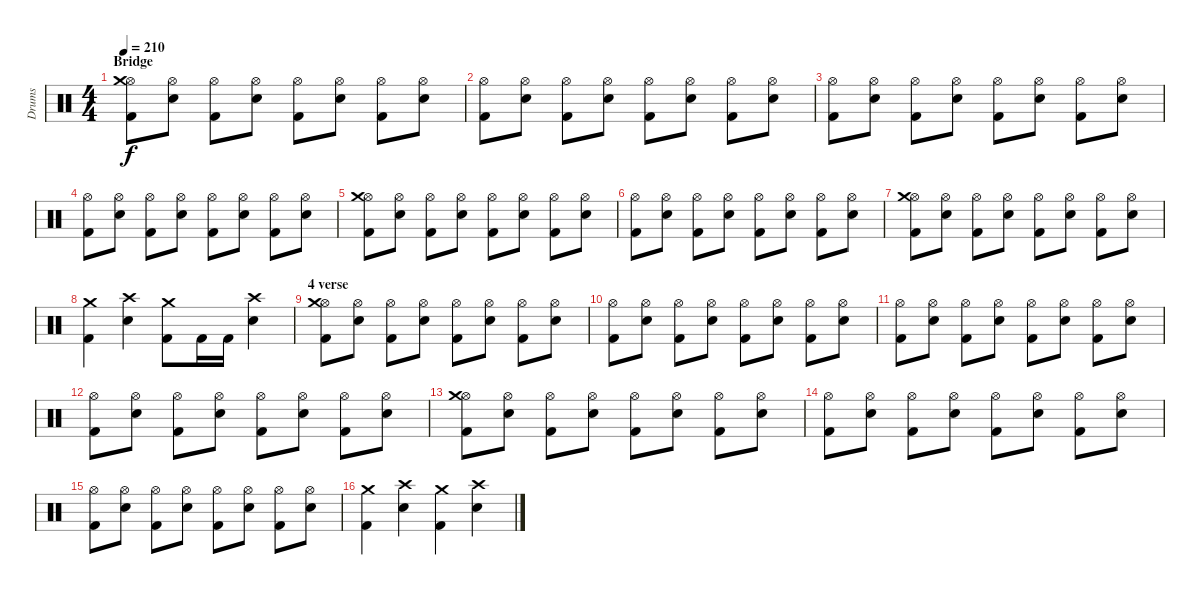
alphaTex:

\track ("Drums" "Drums") {instrument percussion}
\staff {score}
\articulation defaults
\ts (4 4)
\section ("" "Bridge")
\tempo 210
\clef neutral
\ks c
("Hi-Hat (open)" "Crash medium (hit)" "Kick (hit) 2").8{dy f} ("Hi-Hat (open)" "Electric Snare (hit)").8 ("Hi-Hat (open)" "Kick (hit) 2").8 ("Hi-Hat (open)" "Electric Snare (hit)").8 ("Hi-Hat (open)" "Kick (hit) 2").8 ("Hi-Hat (open)" "Electric Snare (hit)").8 ("Hi-Hat (open)" "Kick (hit) 2").8 ("Hi-Hat (open)" "Electric Snare (hit)").8 |
("Hi-Hat (open)" "Kick (hit) 2").8 ("Hi-Hat (open)" "Electric Snare (hit)").8 ("Hi-Hat (open)" "Kick (hit) 2").8 ("Hi-Hat (open)" "Electric Snare (hit)").8 ("Hi-Hat (open)" "Kick (hit) 2").8 ("Hi-Hat (open)" "Electric Snare (hit)").8 ("Hi-Hat (open)" "Kick (hit) 2").8 ("Hi-Hat (open)" "Electric Snare (hit)").8 |
("Hi-Hat (open)" "Kick (hit) 2").8 ("Hi-Hat (open)" "Electric Snare (hit)").8 ("Hi-Hat (open)" "Kick (hit) 2").8 ("Hi-Hat (open)" "Electric Snare (hit)").8 ("Hi-Hat (open)" "Kick (hit) 2").8 ("Hi-Hat (open)" "Electric Snare (hit)").8 ("Hi-Hat (open)" "Kick (hit) 2").8 ("Hi-Hat (open)" "Electric Snare (hit)").8 |
("Hi-Hat (open)" "Kick (hit) 2").8 ("Hi-Hat (open)" "Electric Snare (hit)").8 ("Hi-Hat (open)" "Kick (hit) 2").8 ("Hi-Hat (open)" "Electric Snare (hit)").8 ("Hi-Hat (open)" "Kick (hit) 2").8 ("Hi-Hat (open)" "Electric Snare (hit)").8 ("Hi-Hat (open)" "Kick (hit) 2").8 ("Hi-Hat (open)" "Electric Snare (hit)").8 |
("Hi-Hat (open)" "Crash medium (hit)" "Kick (hit) 2").8 ("Hi-Hat (open)" "Electric Snare (hit)").8 ("Hi-Hat (open)" "Kick (hit) 2").8 ("Hi-Hat (open)" "Electric Snare (hit)").8 ("Hi-Hat (open)" "Kick (hit) 2").8 ("Hi-Hat (open)" "Electric Snare (hit)").8 ("Hi-Hat (open)" "Kick (hit) 2").8 ("Hi-Hat (open)" "Electric Snare (hit)").8 |
("Hi-Hat (open)" "Kick (hit) 2").8 ("Hi-Hat (open)" "Electric Snare (hit)").8 ("Hi-Hat (open)" "Kick (hit) 2").8 ("Hi-Hat (open)" "Electric Snare (hit)").8 ("Hi-Hat (open)" "Kick (hit) 2").8 ("Hi-Hat (open)" "Electric Snare (hit)").8 ("Hi-Hat (open)" "Kick (hit) 2").8 ("Hi-Hat (open)" "Electric Snare (hit)").8 |
("Hi-Hat (open)" "Crash medium (hit)" "Kick (hit) 2").8 ("Hi-Hat (open)" "Electric Snare (hit)").8 ("Hi-Hat (open)" "Kick (hit) 2").8 ("Hi-Hat (open)" "Electric Snare (hit)").8 ("Hi-Hat (open)" "Kick (hit) 2").8 ("Hi-Hat (open)" "Electric Snare (hit)").8 ("Hi-Hat (open)" "Kick (hit) 2").8 ("Hi-Hat (open)" "Electric Snare (hit)").8 |
("Crash medium (hit)" "Kick (hit) 2").4 ("Crash high (hit)" "Electric Snare (hit)").4 ("Crash medium (hit)" "Kick (hit) 2").8 "Kick (hit) 2".16 "Kick (hit) 2".16 ("Crash high (hit)" "Electric Snare (hit)").4 |
\section ("" "4 verse")
("Hi-Hat (open)" "Crash medium (hit)" "Kick (hit) 2").8 ("Hi-Hat (open)" "Electric Snare (hit)").8 ("Hi-Hat (open)" "Kick (hit) 2").8 ("Hi-Hat (open)" "Electric Snare (hit)").8 ("Hi-Hat (open)" "Kick (hit) 2").8 ("Hi-Hat (open)" "Electric Snare (hit)").8 ("Hi-Hat (open)" "Kick (hit) 2").8 ("Hi-Hat (open)" "Electric Snare (hit)").8 |
("Hi-Hat (open)" "Kick (hit) 2").8 ("Hi-Hat (open)" "Electric Snare (hit)").8 ("Hi-Hat (open)" "Kick (hit) 2").8 ("Hi-Hat (open)" "Electric Snare (hit)").8 ("Hi-Hat (open)" "Kick (hit) 2").8 ("Hi-Hat (open)" "Electric Snare (hit)").8 ("Hi-Hat (open)" "Kick (hit) 2").8 ("Hi-Hat (open)" "Electric Snare (hit)").8 |
("Hi-Hat (open)" "Kick (hit) 2").8 ("Hi-Hat (open)" "Electric Snare (hit)").8 ("Hi-Hat (open)" "Kick (hit) 2").8 ("Hi-Hat (open)" "Electric Snare (hit)").8 ("Hi-Hat (open)" "Kick (hit) 2").8 ("Hi-Hat (open)" "Electric Snare (hit)").8 ("Hi-Hat (open)" "Kick (hit) 2").8 ("Hi-Hat (open)" "Electric Snare (hit)").8 |
("Hi-Hat (open)" "Kick (hit) 2").8 ("Hi-Hat (open)" "Electric Snare (hit)").8 ("Hi-Hat (open)" "Kick (hit) 2").8 ("Hi-Hat (open)" "Electric Snare (hit)").8 ("Hi-Hat (open)" "Kick (hit) 2").8 ("Hi-Hat (open)" "Electric Snare (hit)").8 ("Hi-Hat (open)" "Kick (hit) 2").8 ("Hi-Hat (open)" "Electric Snare (hit)").8 |
("Hi-Hat (open)" "Crash medium (hit)" "Kick (hit) 2").8 ("Hi-Hat (open)" "Electric Snare (hit)").8 ("Hi-Hat (open)" "Kick (hit) 2").8 ("Hi-Hat (open)" "Electric Snare (hit)").8 ("Hi-Hat (open)" "Kick (hit) 2").8 ("Hi-Hat (open)" "Electric Snare (hit)").8 ("Hi-Hat (open)" "Kick (hit) 2").8 ("Hi-Hat (open)" "Electric Snare (hit)").8 |
("Hi-Hat (open)" "Kick (hit) 2").8 ("Hi-Hat (open)" "Electric Snare (hit)").8 ("Hi-Hat (open)" "Kick (hit) 2").8 ("Hi-Hat (open)" "Electric Snare (hit)").8 ("Hi-Hat (open)" "Kick (hit) 2").8 ("Hi-Hat (open)" "Electric Snare (hit)").8 ("Hi-Hat (open)" "Kick (hit) 2").8 ("Hi-Hat (open)" "Electric Snare (hit)").8 |
("Hi-Hat (open)" "Kick (hit) 2").8 ("Hi-Hat (open)" "Electric Snare (hit)").8 ("Hi-Hat (open)" "Kick (hit) 2").8 ("Hi-Hat (open)" "Electric Snare (hit)").8 ("Hi-Hat (open)" "Kick (hit) 2").8 ("Hi-Hat (open)" "Electric Snare (hit)").8 ("Hi-Hat (open)" "Kick (hit) 2").8 ("Hi-Hat (open)" "Electric Snare (hit)").8 |
("Crash medium (hit)" "Kick (hit) 2").4 ("Crash high (hit)" "Electric Snare (hit)").4 ("Crash medium (hit)" "Kick (hit) 2").4 ("Crash high (hit)" "Electric Snare (hit)").4
